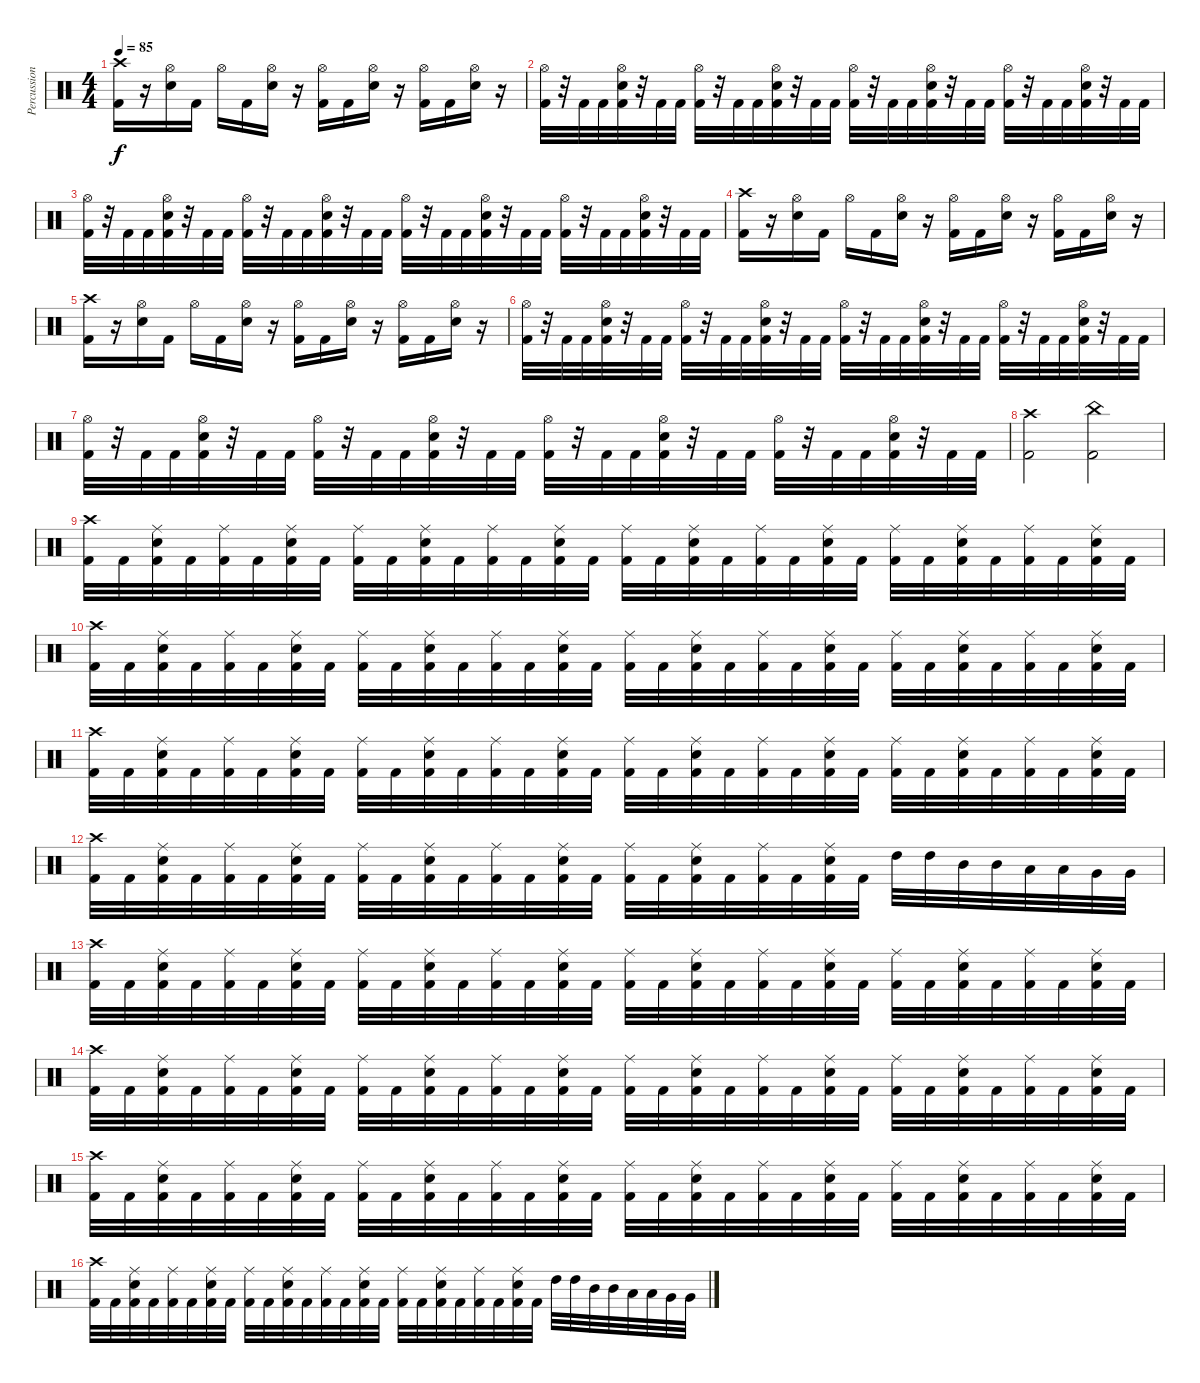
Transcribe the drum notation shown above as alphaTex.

\track ("Percussions" "Percussion") {instrument percussion}
\staff {score}
\articulation defaults
\ts (4 4)
\tempo 85
\clef neutral
\ks c
("Crash high (hit)" "Kick (hit) 2").16{dy f} r.16 ("Hi-Hat (open)" "Snare (hit) 2").16 "Kick (hit) 2".16 "Hi-Hat (open)".16 "Kick (hit) 2".16 ("Hi-Hat (open)" "Snare (hit) 2").16 r.16 ("Hi-Hat (open)" "Kick (hit) 2").16 "Kick (hit) 2".16 ("Hi-Hat (open)" "Snare (hit) 2").16 r.16 ("Hi-Hat (open)" "Kick (hit) 2").16 "Kick (hit) 2".16 ("Hi-Hat (open)" "Snare (hit) 2").16 r.16 |
("Hi-Hat (open)" "Kick (hit) 2").32 r.32 "Kick (hit) 2".32 "Kick (hit) 2".32 ("Hi-Hat (open)" "Snare (hit) 2" "Kick (hit) 2").32 r.32 "Kick (hit) 2".32 "Kick (hit) 2".32 ("Hi-Hat (open)" "Kick (hit) 2").32 r.32 "Kick (hit) 2".32 "Kick (hit) 2".32 ("Hi-Hat (open)" "Snare (hit) 2" "Kick (hit) 2").32 r.32 "Kick (hit) 2".32 "Kick (hit) 2".32 ("Hi-Hat (open)" "Kick (hit) 2").32 r.32 "Kick (hit) 2".32 "Kick (hit) 2".32 ("Hi-Hat (open)" "Snare (hit) 2" "Kick (hit) 2").32 r.32 "Kick (hit) 2".32 "Kick (hit) 2".32 ("Hi-Hat (open)" "Kick (hit) 2").32 r.32 "Kick (hit) 2".32 "Kick (hit) 2".32 ("Hi-Hat (open)" "Snare (hit) 2" "Kick (hit) 2").32 r.32 "Kick (hit) 2".32 "Kick (hit) 2".32 |
("Hi-Hat (open)" "Kick (hit) 2").32 r.32 "Kick (hit) 2".32 "Kick (hit) 2".32 ("Hi-Hat (open)" "Snare (hit) 2" "Kick (hit) 2").32 r.32 "Kick (hit) 2".32 "Kick (hit) 2".32 ("Hi-Hat (open)" "Kick (hit) 2").32 r.32 "Kick (hit) 2".32 "Kick (hit) 2".32 ("Hi-Hat (open)" "Snare (hit) 2" "Kick (hit) 2").32 r.32 "Kick (hit) 2".32 "Kick (hit) 2".32 ("Hi-Hat (open)" "Kick (hit) 2").32 r.32 "Kick (hit) 2".32 "Kick (hit) 2".32 ("Hi-Hat (open)" "Snare (hit) 2" "Kick (hit) 2").32 r.32 "Kick (hit) 2".32 "Kick (hit) 2".32 ("Hi-Hat (open)" "Kick (hit) 2").32 r.32 "Kick (hit) 2".32 "Kick (hit) 2".32 ("Hi-Hat (open)" "Snare (hit) 2" "Kick (hit) 2").32 r.32 "Kick (hit) 2".32 "Kick (hit) 2".32 |
("Crash high (hit)" "Kick (hit) 2").16 r.16 ("Hi-Hat (open)" "Snare (hit) 2").16 "Kick (hit) 2".16 "Hi-Hat (open)".16 "Kick (hit) 2".16 ("Hi-Hat (open)" "Snare (hit) 2").16 r.16 ("Hi-Hat (open)" "Kick (hit) 2").16 "Kick (hit) 2".16 ("Hi-Hat (open)" "Snare (hit) 2").16 r.16 ("Hi-Hat (open)" "Kick (hit) 2").16 "Kick (hit) 2".16 ("Hi-Hat (open)" "Snare (hit) 2").16 r.16 |
("Crash high (hit)" "Kick (hit) 2").16 r.16 ("Hi-Hat (open)" "Snare (hit) 2").16 "Kick (hit) 2".16 "Hi-Hat (open)".16 "Kick (hit) 2".16 ("Hi-Hat (open)" "Snare (hit) 2").16 r.16 ("Hi-Hat (open)" "Kick (hit) 2").16 "Kick (hit) 2".16 ("Hi-Hat (open)" "Snare (hit) 2").16 r.16 ("Hi-Hat (open)" "Kick (hit) 2").16 "Kick (hit) 2".16 ("Hi-Hat (open)" "Snare (hit) 2").16 r.16 |
("Hi-Hat (open)" "Kick (hit) 2").32 r.32 "Kick (hit) 2".32 "Kick (hit) 2".32 ("Hi-Hat (open)" "Snare (hit) 2" "Kick (hit) 2").32 r.32 "Kick (hit) 2".32 "Kick (hit) 2".32 ("Hi-Hat (open)" "Kick (hit) 2").32 r.32 "Kick (hit) 2".32 "Kick (hit) 2".32 ("Hi-Hat (open)" "Snare (hit) 2" "Kick (hit) 2").32 r.32 "Kick (hit) 2".32 "Kick (hit) 2".32 ("Hi-Hat (open)" "Kick (hit) 2").32 r.32 "Kick (hit) 2".32 "Kick (hit) 2".32 ("Hi-Hat (open)" "Snare (hit) 2" "Kick (hit) 2").32 r.32 "Kick (hit) 2".32 "Kick (hit) 2".32 ("Hi-Hat (open)" "Kick (hit) 2").32 r.32 "Kick (hit) 2".32 "Kick (hit) 2".32 ("Hi-Hat (open)" "Snare (hit) 2" "Kick (hit) 2").32 r.32 "Kick (hit) 2".32 "Kick (hit) 2".32 |
("Hi-Hat (open)" "Kick (hit) 2").32 r.32 "Kick (hit) 2".32 "Kick (hit) 2".32 ("Hi-Hat (open)" "Snare (hit) 2" "Kick (hit) 2").32 r.32 "Kick (hit) 2".32 "Kick (hit) 2".32 ("Hi-Hat (open)" "Kick (hit) 2").32 r.32 "Kick (hit) 2".32 "Kick (hit) 2".32 ("Hi-Hat (open)" "Snare (hit) 2" "Kick (hit) 2").32 r.32 "Kick (hit) 2".32 "Kick (hit) 2".32 ("Hi-Hat (open)" "Kick (hit) 2").32 r.32 "Kick (hit) 2".32 "Kick (hit) 2".32 ("Hi-Hat (open)" "Snare (hit) 2" "Kick (hit) 2").32 r.32 "Kick (hit) 2".32 "Kick (hit) 2".32 ("Hi-Hat (open)" "Kick (hit) 2").32 r.32 "Kick (hit) 2".32 "Kick (hit) 2".32 ("Hi-Hat (open)" "Snare (hit) 2" "Kick (hit) 2").32 r.32 "Kick (hit) 2".32 "Kick (hit) 2".32 |
("Crash high (hit)" "Kick (hit) 2").2 ("China (hit)" "Kick (hit) 2").2 |
("Crash high (hit)" "Kick (hit) 2").32 "Kick (hit) 2".32 ("Ride (middle)" "Snare (hit) 2" "Kick (hit) 2").32 "Kick (hit) 2".32 ("Ride (middle)" "Kick (hit) 2").32 "Kick (hit) 2".32 ("Ride (middle)" "Snare (hit) 2" "Kick (hit) 2").32 "Kick (hit) 2".32 ("Ride (middle)" "Kick (hit) 2").32 "Kick (hit) 2".32 ("Ride (middle)" "Snare (hit) 2" "Kick (hit) 2").32 "Kick (hit) 2".32 ("Ride (middle)" "Kick (hit) 2").32 "Kick (hit) 2".32 ("Ride (middle)" "Snare (hit) 2" "Kick (hit) 2").32 "Kick (hit) 2".32 ("Ride (middle)" "Kick (hit) 2").32 "Kick (hit) 2".32 ("Ride (middle)" "Snare (hit) 2" "Kick (hit) 2").32 "Kick (hit) 2".32 ("Ride (middle)" "Kick (hit) 2").32 "Kick (hit) 2".32 ("Ride (middle)" "Snare (hit) 2" "Kick (hit) 2").32 "Kick (hit) 2".32 ("Ride (middle)" "Kick (hit) 2").32 "Kick (hit) 2".32 ("Ride (middle)" "Snare (hit) 2" "Kick (hit) 2").32 "Kick (hit) 2".32 ("Ride (middle)" "Kick (hit) 2").32 "Kick (hit) 2".32 ("Ride (middle)" "Snare (hit) 2" "Kick (hit) 2").32 "Kick (hit) 2".32 |
("Crash high (hit)" "Kick (hit) 2").32 "Kick (hit) 2".32 ("Ride (middle)" "Snare (hit) 2" "Kick (hit) 2").32 "Kick (hit) 2".32 ("Ride (middle)" "Kick (hit) 2").32 "Kick (hit) 2".32 ("Ride (middle)" "Snare (hit) 2" "Kick (hit) 2").32 "Kick (hit) 2".32 ("Ride (middle)" "Kick (hit) 2").32 "Kick (hit) 2".32 ("Ride (middle)" "Snare (hit) 2" "Kick (hit) 2").32 "Kick (hit) 2".32 ("Ride (middle)" "Kick (hit) 2").32 "Kick (hit) 2".32 ("Ride (middle)" "Snare (hit) 2" "Kick (hit) 2").32 "Kick (hit) 2".32 ("Ride (middle)" "Kick (hit) 2").32 "Kick (hit) 2".32 ("Ride (middle)" "Snare (hit) 2" "Kick (hit) 2").32 "Kick (hit) 2".32 ("Ride (middle)" "Kick (hit) 2").32 "Kick (hit) 2".32 ("Ride (middle)" "Snare (hit) 2" "Kick (hit) 2").32 "Kick (hit) 2".32 ("Ride (middle)" "Kick (hit) 2").32 "Kick (hit) 2".32 ("Ride (middle)" "Snare (hit) 2" "Kick (hit) 2").32 "Kick (hit) 2".32 ("Ride (middle)" "Kick (hit) 2").32 "Kick (hit) 2".32 ("Ride (middle)" "Snare (hit) 2" "Kick (hit) 2").32 "Kick (hit) 2".32 |
("Crash high (hit)" "Kick (hit) 2").32 "Kick (hit) 2".32 ("Ride (middle)" "Snare (hit) 2" "Kick (hit) 2").32 "Kick (hit) 2".32 ("Ride (middle)" "Kick (hit) 2").32 "Kick (hit) 2".32 ("Ride (middle)" "Snare (hit) 2" "Kick (hit) 2").32 "Kick (hit) 2".32 ("Ride (middle)" "Kick (hit) 2").32 "Kick (hit) 2".32 ("Ride (middle)" "Snare (hit) 2" "Kick (hit) 2").32 "Kick (hit) 2".32 ("Ride (middle)" "Kick (hit) 2").32 "Kick (hit) 2".32 ("Ride (middle)" "Snare (hit) 2" "Kick (hit) 2").32 "Kick (hit) 2".32 ("Ride (middle)" "Kick (hit) 2").32 "Kick (hit) 2".32 ("Ride (middle)" "Snare (hit) 2" "Kick (hit) 2").32 "Kick (hit) 2".32 ("Ride (middle)" "Kick (hit) 2").32 "Kick (hit) 2".32 ("Ride (middle)" "Snare (hit) 2" "Kick (hit) 2").32 "Kick (hit) 2".32 ("Ride (middle)" "Kick (hit) 2").32 "Kick (hit) 2".32 ("Ride (middle)" "Snare (hit) 2" "Kick (hit) 2").32 "Kick (hit) 2".32 ("Ride (middle)" "Kick (hit) 2").32 "Kick (hit) 2".32 ("Ride (middle)" "Snare (hit) 2" "Kick (hit) 2").32 "Kick (hit) 2".32 |
("Crash high (hit)" "Kick (hit) 2").32 "Kick (hit) 2".32 ("Ride (middle)" "Snare (hit) 2" "Kick (hit) 2").32 "Kick (hit) 2".32 ("Ride (middle)" "Kick (hit) 2").32 "Kick (hit) 2".32 ("Ride (middle)" "Snare (hit) 2" "Kick (hit) 2").32 "Kick (hit) 2".32 ("Ride (middle)" "Kick (hit) 2").32 "Kick (hit) 2".32 ("Ride (middle)" "Snare (hit) 2" "Kick (hit) 2").32 "Kick (hit) 2".32 ("Ride (middle)" "Kick (hit) 2").32 "Kick (hit) 2".32 ("Ride (middle)" "Snare (hit) 2" "Kick (hit) 2").32 "Kick (hit) 2".32 ("Ride (middle)" "Kick (hit) 2").32 "Kick (hit) 2".32 ("Ride (middle)" "Snare (hit) 2" "Kick (hit) 2").32 "Kick (hit) 2".32 ("Ride (middle)" "Kick (hit) 2").32 "Kick (hit) 2".32 ("Ride (middle)" "Snare (hit) 2" "Kick (hit) 2").32 "Kick (hit) 2".32 "High Tom (hit)".32 "High Tom (hit)".32 "Mid Tom (hit)".32 "Mid Tom (hit)".32 "Low Tom (hit)".32 "Low Tom (hit)".32 "Very Low Tom (hit)".32 "Very Low Tom (hit)".32 |
("Crash high (hit)" "Kick (hit) 2").32 "Kick (hit) 2".32 ("Ride (middle)" "Snare (hit) 2" "Kick (hit) 2").32 "Kick (hit) 2".32 ("Ride (middle)" "Kick (hit) 2").32 "Kick (hit) 2".32 ("Ride (middle)" "Snare (hit) 2" "Kick (hit) 2").32 "Kick (hit) 2".32 ("Ride (middle)" "Kick (hit) 2").32 "Kick (hit) 2".32 ("Ride (middle)" "Snare (hit) 2" "Kick (hit) 2").32 "Kick (hit) 2".32 ("Ride (middle)" "Kick (hit) 2").32 "Kick (hit) 2".32 ("Ride (middle)" "Snare (hit) 2" "Kick (hit) 2").32 "Kick (hit) 2".32 ("Ride (middle)" "Kick (hit) 2").32 "Kick (hit) 2".32 ("Ride (middle)" "Snare (hit) 2" "Kick (hit) 2").32 "Kick (hit) 2".32 ("Ride (middle)" "Kick (hit) 2").32 "Kick (hit) 2".32 ("Ride (middle)" "Snare (hit) 2" "Kick (hit) 2").32 "Kick (hit) 2".32 ("Ride (middle)" "Kick (hit) 2").32 "Kick (hit) 2".32 ("Ride (middle)" "Snare (hit) 2" "Kick (hit) 2").32 "Kick (hit) 2".32 ("Ride (middle)" "Kick (hit) 2").32 "Kick (hit) 2".32 ("Ride (middle)" "Snare (hit) 2" "Kick (hit) 2").32 "Kick (hit) 2".32 |
("Crash high (hit)" "Kick (hit) 2").32 "Kick (hit) 2".32 ("Ride (middle)" "Snare (hit) 2" "Kick (hit) 2").32 "Kick (hit) 2".32 ("Ride (middle)" "Kick (hit) 2").32 "Kick (hit) 2".32 ("Ride (middle)" "Snare (hit) 2" "Kick (hit) 2").32 "Kick (hit) 2".32 ("Ride (middle)" "Kick (hit) 2").32 "Kick (hit) 2".32 ("Ride (middle)" "Snare (hit) 2" "Kick (hit) 2").32 "Kick (hit) 2".32 ("Ride (middle)" "Kick (hit) 2").32 "Kick (hit) 2".32 ("Ride (middle)" "Snare (hit) 2" "Kick (hit) 2").32 "Kick (hit) 2".32 ("Ride (middle)" "Kick (hit) 2").32 "Kick (hit) 2".32 ("Ride (middle)" "Snare (hit) 2" "Kick (hit) 2").32 "Kick (hit) 2".32 ("Ride (middle)" "Kick (hit) 2").32 "Kick (hit) 2".32 ("Ride (middle)" "Snare (hit) 2" "Kick (hit) 2").32 "Kick (hit) 2".32 ("Ride (middle)" "Kick (hit) 2").32 "Kick (hit) 2".32 ("Ride (middle)" "Snare (hit) 2" "Kick (hit) 2").32 "Kick (hit) 2".32 ("Ride (middle)" "Kick (hit) 2").32 "Kick (hit) 2".32 ("Ride (middle)" "Snare (hit) 2" "Kick (hit) 2").32 "Kick (hit) 2".32 |
("Crash high (hit)" "Kick (hit) 2").32 "Kick (hit) 2".32 ("Ride (middle)" "Snare (hit) 2" "Kick (hit) 2").32 "Kick (hit) 2".32 ("Ride (middle)" "Kick (hit) 2").32 "Kick (hit) 2".32 ("Ride (middle)" "Snare (hit) 2" "Kick (hit) 2").32 "Kick (hit) 2".32 ("Ride (middle)" "Kick (hit) 2").32 "Kick (hit) 2".32 ("Ride (middle)" "Snare (hit) 2" "Kick (hit) 2").32 "Kick (hit) 2".32 ("Ride (middle)" "Kick (hit) 2").32 "Kick (hit) 2".32 ("Ride (middle)" "Snare (hit) 2" "Kick (hit) 2").32 "Kick (hit) 2".32 ("Ride (middle)" "Kick (hit) 2").32 "Kick (hit) 2".32 ("Ride (middle)" "Snare (hit) 2" "Kick (hit) 2").32 "Kick (hit) 2".32 ("Ride (middle)" "Kick (hit) 2").32 "Kick (hit) 2".32 ("Ride (middle)" "Snare (hit) 2" "Kick (hit) 2").32 "Kick (hit) 2".32 ("Ride (middle)" "Kick (hit) 2").32 "Kick (hit) 2".32 ("Ride (middle)" "Snare (hit) 2" "Kick (hit) 2").32 "Kick (hit) 2".32 ("Ride (middle)" "Kick (hit) 2").32 "Kick (hit) 2".32 ("Ride (middle)" "Snare (hit) 2" "Kick (hit) 2").32 "Kick (hit) 2".32 |
("Crash high (hit)" "Kick (hit) 2").32 "Kick (hit) 2".32 ("Ride (middle)" "Snare (hit) 2" "Kick (hit) 2").32 "Kick (hit) 2".32 ("Ride (middle)" "Kick (hit) 2").32 "Kick (hit) 2".32 ("Ride (middle)" "Snare (hit) 2" "Kick (hit) 2").32 "Kick (hit) 2".32 ("Ride (middle)" "Kick (hit) 2").32 "Kick (hit) 2".32 ("Ride (middle)" "Snare (hit) 2" "Kick (hit) 2").32 "Kick (hit) 2".32 ("Ride (middle)" "Kick (hit) 2").32 "Kick (hit) 2".32 ("Ride (middle)" "Snare (hit) 2" "Kick (hit) 2").32 "Kick (hit) 2".32 ("Ride (middle)" "Kick (hit) 2").32 "Kick (hit) 2".32 ("Ride (middle)" "Snare (hit) 2" "Kick (hit) 2").32 "Kick (hit) 2".32 ("Ride (middle)" "Kick (hit) 2").32 "Kick (hit) 2".32 ("Ride (middle)" "Snare (hit) 2" "Kick (hit) 2").32 "Kick (hit) 2".32 "High Tom (hit)".32 "High Tom (hit)".32 "Mid Tom (hit)".32 "Mid Tom (hit)".32 "Low Tom (hit)".32 "Low Tom (hit)".32 "Very Low Tom (hit)".32 "Very Low Tom (hit)".32
